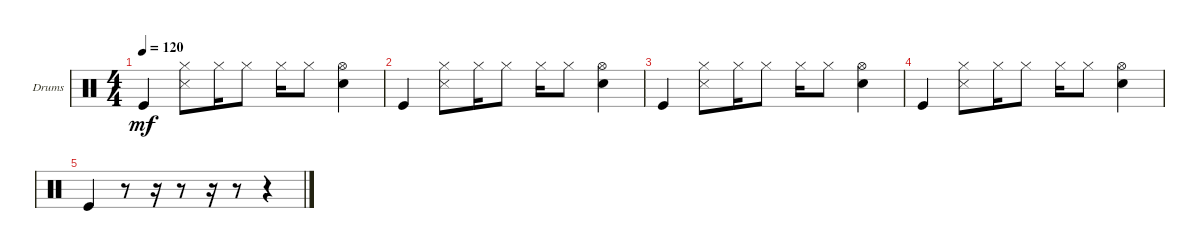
\defaultSystemsLayout 4
\bracketExtendMode groupsimilarinstruments
\firstSystemTrackNameOrientation horizontal
\otherSystemsTrackNameOrientation horizontal
\track ("Drumkit" "Drums") {instrument percussion}
\staff {score}
\articulation defaults
\ts (4 4)
\tempo 120
\clef neutral
\ks c "Kick (hit)".4{dy mf}
("Snare (side stick) 3" "Hi-Hat (closed)").8 "Hi-Hat (closed)".16 "Hi-Hat (closed)".8 "Hi-Hat (closed)".16 "Hi-Hat (closed)".8 ("Snare (hit) 2" "Hi-Hat (open)").4 |
"Kick (hit)".4 ("Snare (side stick) 3" "Hi-Hat (closed)").8 "Hi-Hat (closed)".16 "Hi-Hat (closed)".8 "Hi-Hat (closed)".16 "Hi-Hat (closed)".8 ("Snare (hit) 2" "Hi-Hat (open)").4 |
"Kick (hit)".4 ("Snare (side stick) 3" "Hi-Hat (closed)").8 "Hi-Hat (closed)".16 "Hi-Hat (closed)".8 "Hi-Hat (closed)".16 "Hi-Hat (closed)".8 ("Snare (hit) 2" "Hi-Hat (open)").4 |
"Kick (hit)".4 ("Snare (side stick) 3" "Hi-Hat (closed)").8 "Hi-Hat (closed)".16 "Hi-Hat (closed)".8 "Hi-Hat (closed)".16 "Hi-Hat (closed)".8 ("Snare (hit) 2" "Hi-Hat (open)").4 |
"Kick (hit)".4 r.8 r.16 r.8 r.16 r.8 r.4
